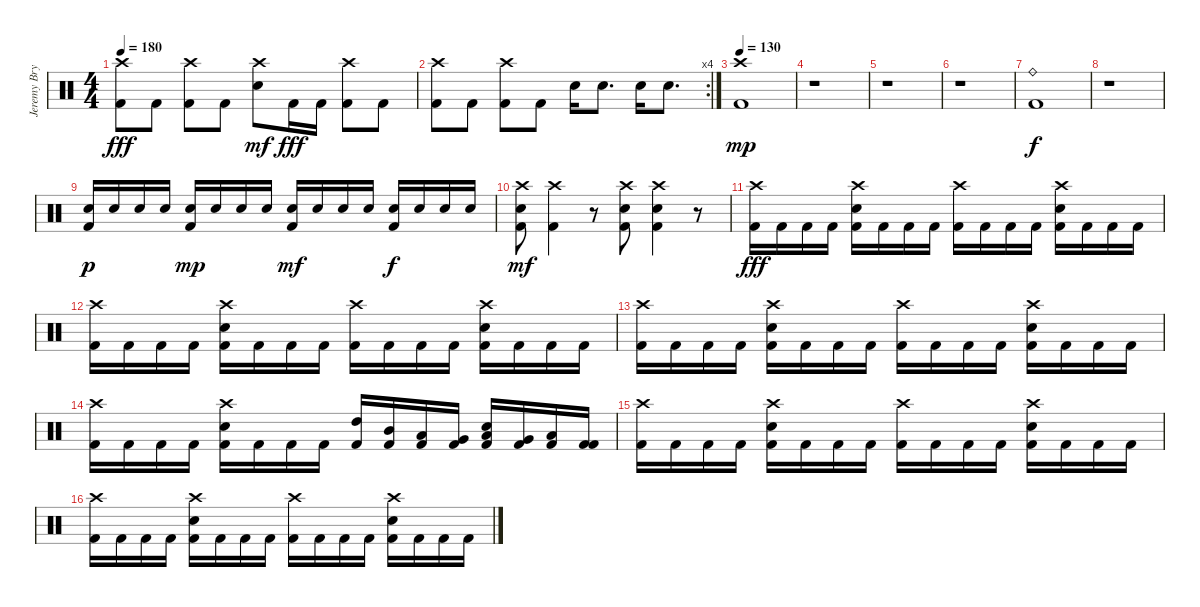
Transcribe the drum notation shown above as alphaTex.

\track ("Jeremy Bryan - Drums" "Jeremy Bry") {instrument percussion}
\staff {score}
\articulation defaults
\ts (4 4)
\tempo 180
\clef neutral
\ks c
("Crash high (hit)" "Kick (hit) 2").8{dy fff} "Kick (hit) 2".8 ("Crash high (hit)" "Kick (hit) 2").8 "Kick (hit) 2".8 ("Crash high (hit)" "Electric Snare (hit)").8{dy mf} "Kick (hit) 2".16{dy fff} "Kick (hit) 2".16 ("Crash high (hit)" "Kick (hit) 2").8 "Kick (hit) 2".8 |
\rc 4
("Crash high (hit)" "Kick (hit) 2").8 "Kick (hit) 2".8 ("Crash high (hit)" "Kick (hit) 2").8 "Kick (hit) 2".8 "Electric Snare (hit)".16 "Electric Snare (hit)".8{d} "Electric Snare (hit)".16 "Electric Snare (hit)".8{d} |
\tempo 130
("Crash high (hit)" "Kick (hit) 2").1{dy mp} |
r.1 |
r.1 |
r.1 |
("Ride (bell)" "Kick (hit) 2").1{dy f} |
r.1 |
("Electric Snare (hit)" "Kick (hit) 2").16{dy p} "Electric Snare (hit)".16 "Electric Snare (hit)".16 "Electric Snare (hit)".16 ("Electric Snare (hit)" "Kick (hit) 2").16{dy mp} "Electric Snare (hit)".16 "Electric Snare (hit)".16 "Electric Snare (hit)".16 ("Electric Snare (hit)" "Kick (hit) 2").16{dy mf} "Electric Snare (hit)".16 "Electric Snare (hit)".16 "Electric Snare (hit)".16 ("Electric Snare (hit)" "Kick (hit) 2").16{dy f} "Electric Snare (hit)".16 "Electric Snare (hit)".16 "Electric Snare (hit)".16 |
("Crash high (hit)" "Electric Snare (hit)" "Kick (hit) 2").8{dy mf} ("Crash high (hit)" "Kick (hit) 2").4 r.8 ("Crash high (hit)" "Electric Snare (hit)" "Kick (hit) 2").8 ("Crash high (hit)" "Electric Snare (hit)" "Kick (hit) 2").4 r.8 |
("Crash high (hit)" "Kick (hit) 2").16{dy fff} "Kick (hit) 2".16 "Kick (hit) 2".16 "Kick (hit) 2".16 ("Crash high (hit)" "Electric Snare (hit)" "Kick (hit) 2").16 "Kick (hit) 2".16 "Kick (hit) 2".16 "Kick (hit) 2".16 ("Crash high (hit)" "Kick (hit) 2").16 "Kick (hit) 2".16 "Kick (hit) 2".16 "Kick (hit) 2".16 ("Crash high (hit)" "Electric Snare (hit)" "Kick (hit) 2").16 "Kick (hit) 2".16 "Kick (hit) 2".16 "Kick (hit) 2".16 |
("Crash high (hit)" "Kick (hit) 2").16 "Kick (hit) 2".16 "Kick (hit) 2".16 "Kick (hit) 2".16 ("Crash high (hit)" "Electric Snare (hit)" "Kick (hit) 2").16 "Kick (hit) 2".16 "Kick (hit) 2".16 "Kick (hit) 2".16 ("Crash high (hit)" "Kick (hit) 2").16 "Kick (hit) 2".16 "Kick (hit) 2".16 "Kick (hit) 2".16 ("Crash high (hit)" "Electric Snare (hit)" "Kick (hit) 2").16 "Kick (hit) 2".16 "Kick (hit) 2".16 "Kick (hit) 2".16 |
("Crash high (hit)" "Kick (hit) 2").16 "Kick (hit) 2".16 "Kick (hit) 2".16 "Kick (hit) 2".16 ("Crash high (hit)" "Electric Snare (hit)" "Kick (hit) 2").16 "Kick (hit) 2".16 "Kick (hit) 2".16 "Kick (hit) 2".16 ("Crash high (hit)" "Kick (hit) 2").16 "Kick (hit) 2".16 "Kick (hit) 2".16 "Kick (hit) 2".16 ("Crash high (hit)" "Electric Snare (hit)" "Kick (hit) 2").16 "Kick (hit) 2".16 "Kick (hit) 2".16 "Kick (hit) 2".16 |
("Crash high (hit)" "Kick (hit) 2").16 "Kick (hit) 2".16 "Kick (hit) 2".16 "Kick (hit) 2".16 ("Crash high (hit)" "Electric Snare (hit)" "Kick (hit) 2").16 "Kick (hit) 2".16 "Kick (hit) 2".16 "Kick (hit) 2".16 ("High Tom (hit)" "Kick (hit) 2").16 ("Mid Tom (hit)" "Kick (hit) 2").16 ("Low Tom (hit)" "Kick (hit) 2").16 ("Very Low Tom (hit)" "Kick (hit) 2").16 ("Low Tom (hit)" "Electric Snare (hit)" "Kick (hit) 2").16 ("Very Low Tom (hit)" "Kick (hit) 2").16 ("Low Floor Tom (hit)" "Kick (hit) 2").16 ("Kick (hit) 2" "Kick (hit) 2").16 |
("Crash high (hit)" "Kick (hit) 2").16 "Kick (hit) 2".16 "Kick (hit) 2".16 "Kick (hit) 2".16 ("Crash high (hit)" "Electric Snare (hit)" "Kick (hit) 2").16 "Kick (hit) 2".16 "Kick (hit) 2".16 "Kick (hit) 2".16 ("Crash high (hit)" "Kick (hit) 2").16 "Kick (hit) 2".16 "Kick (hit) 2".16 "Kick (hit) 2".16 ("Crash high (hit)" "Electric Snare (hit)" "Kick (hit) 2").16 "Kick (hit) 2".16 "Kick (hit) 2".16 "Kick (hit) 2".16 |
("Crash high (hit)" "Kick (hit) 2").16 "Kick (hit) 2".16 "Kick (hit) 2".16 "Kick (hit) 2".16 ("Crash high (hit)" "Electric Snare (hit)" "Kick (hit) 2").16 "Kick (hit) 2".16 "Kick (hit) 2".16 "Kick (hit) 2".16 ("Crash high (hit)" "Kick (hit) 2").16 "Kick (hit) 2".16 "Kick (hit) 2".16 "Kick (hit) 2".16 ("Crash high (hit)" "Electric Snare (hit)" "Kick (hit) 2").16 "Kick (hit) 2".16 "Kick (hit) 2".16 "Kick (hit) 2".16
